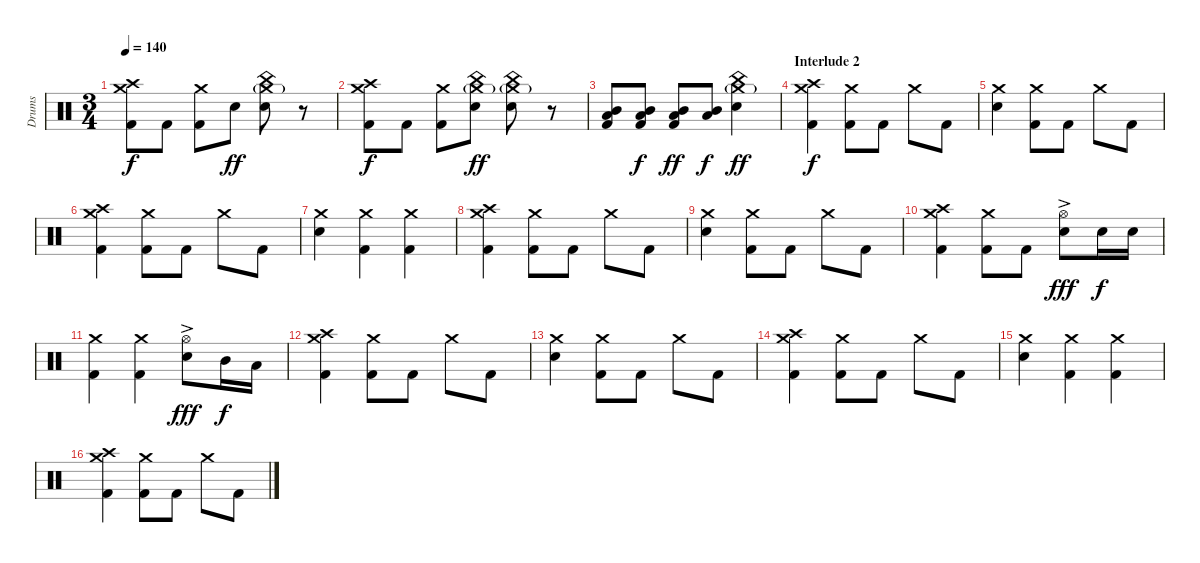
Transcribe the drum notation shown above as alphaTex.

\track ("Drums" "Drums") {instrument percussion}
\staff {score}
\articulation defaults
\ts (3 4)
\tempo 140
\clef neutral
\ks c
("Crash high (hit)" "Crash medium (hit)" "Kick (hit) 2").8{dy f} "Kick (hit) 2".8 ("Crash medium (hit)" "Kick (hit) 2").8 "Snare (hit) 2".8{dy ff} ("China (hit)" "Crash medium (hit)"{g} "Snare (hit) 2").8 r.8 |
("Crash high (hit)" "Crash medium (hit)" "Kick (hit) 2").8{dy f} "Kick (hit) 2".8 ("Crash medium (hit)" "Kick (hit) 2").8 ("China (hit)" "Crash medium (hit)"{g} "Snare (hit) 2").8{dy ff} ("China (hit)" "Crash medium (hit)"{g} "Snare (hit) 2").8 r.8 |
("Mid Tom (hit)" "Low Tom (hit)" "Kick (hit) 2").8 ("Mid Tom (hit)" "Low Tom (hit)" "Kick (hit) 2").8{dy f} ("Mid Tom (hit)" "Low Tom (hit)" "Kick (hit) 2").8{dy ff} ("Mid Tom (hit)" "Low Tom (hit)").8{dy f} ("China (hit)" "Crash medium (hit)"{g} "Snare (hit) 2").4{dy ff} |
\section ("" "Interlude 2")
("Crash high (hit)" "Crash medium (hit)" "Kick (hit) 2").4{dy f} ("Crash medium (hit)" "Kick (hit) 2").8 "Kick (hit) 2".8 "Crash medium (hit)".8 "Kick (hit) 2".8 |
("Crash medium (hit)" "Snare (hit) 2").4 ("Crash medium (hit)" "Kick (hit) 2").8 "Kick (hit) 2".8 "Crash medium (hit)".8 "Kick (hit) 2".8 |
("Crash high (hit)" "Crash medium (hit)" "Kick (hit) 2").4 ("Crash medium (hit)" "Kick (hit) 2").8 "Kick (hit) 2".8 "Crash medium (hit)".8 "Kick (hit) 2".8 |
("Crash medium (hit)" "Snare (hit) 2").4 ("Crash medium (hit)" "Kick (hit) 2").4 ("Crash medium (hit)" "Kick (hit) 2").4 |
("Crash high (hit)" "Crash medium (hit)" "Kick (hit) 2").4 ("Crash medium (hit)" "Kick (hit) 2").8 "Kick (hit) 2".8 "Crash medium (hit)".8 "Kick (hit) 2".8 |
("Crash medium (hit)" "Snare (hit) 2").4 ("Crash medium (hit)" "Kick (hit) 2").8 "Kick (hit) 2".8 "Crash medium (hit)".8 "Kick (hit) 2".8 |
("Crash high (hit)" "Crash medium (hit)" "Kick (hit) 2").4 ("Crash medium (hit)" "Kick (hit) 2").8 "Kick (hit) 2".8 ("Hi-Hat (open)"{ac} "Snare (hit) 2"{ac}).8{dy fff} "Snare (hit) 2".16{dy f} "Snare (hit) 2".16 |
("Crash medium (hit)" "Kick (hit) 2").4 ("Crash medium (hit)" "Kick (hit) 2").4 ("Hi-Hat (open)"{ac} "Snare (hit) 2"{ac}).8{dy fff} "Mid Tom (hit)".16{dy f} "Low Tom (hit)".16 |
("Crash high (hit)" "Crash medium (hit)" "Kick (hit) 2").4 ("Crash medium (hit)" "Kick (hit) 2").8 "Kick (hit) 2".8 "Crash medium (hit)".8 "Kick (hit) 2".8 |
("Crash medium (hit)" "Snare (hit) 2").4 ("Crash medium (hit)" "Kick (hit) 2").8 "Kick (hit) 2".8 "Crash medium (hit)".8 "Kick (hit) 2".8 |
("Crash high (hit)" "Crash medium (hit)" "Kick (hit) 2").4 ("Crash medium (hit)" "Kick (hit) 2").8 "Kick (hit) 2".8 "Crash medium (hit)".8 "Kick (hit) 2".8 |
("Crash medium (hit)" "Snare (hit) 2").4 ("Crash medium (hit)" "Kick (hit) 2").4 ("Crash medium (hit)" "Kick (hit) 2").4 |
("Crash high (hit)" "Crash medium (hit)" "Kick (hit) 2").4 ("Crash medium (hit)" "Kick (hit) 2").8 "Kick (hit) 2".8 "Crash medium (hit)".8 "Kick (hit) 2".8
